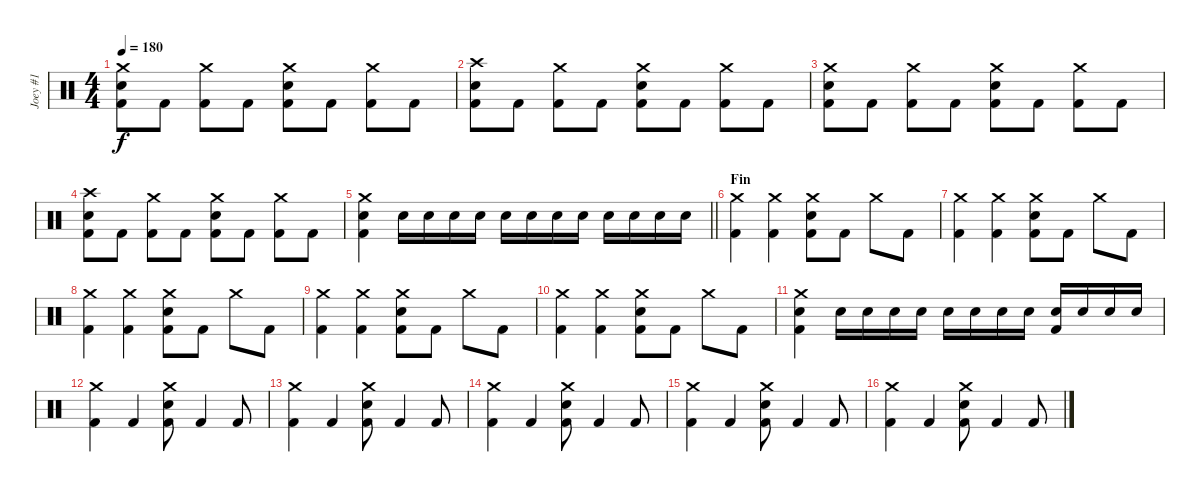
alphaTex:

\track ("Joey #1" "Joey #1") {instrument percussion}
\staff {score}
\articulation defaults
\ts (4 4)
\tempo 180
\clef neutral
\ks c
("Crash medium (hit)" "Electric Snare (hit)" "Kick (hit) 2").8{dy f} "Kick (hit) 2".8 ("Crash medium (hit)" "Kick (hit) 2").8 "Kick (hit) 2".8 ("Crash medium (hit)" "Electric Snare (hit)" "Kick (hit) 2").8 "Kick (hit) 2".8 ("Crash medium (hit)" "Kick (hit) 2").8 "Kick (hit) 2".8 |
("Crash high (hit)" "Electric Snare (hit)" "Kick (hit) 2").8 "Kick (hit) 2".8 ("Crash medium (hit)" "Kick (hit) 2").8 "Kick (hit) 2".8 ("Crash medium (hit)" "Electric Snare (hit)" "Kick (hit) 2").8 "Kick (hit) 2".8 ("Crash medium (hit)" "Kick (hit) 2").8 "Kick (hit) 2".8 |
("Crash medium (hit)" "Electric Snare (hit)" "Kick (hit) 2").8 "Kick (hit) 2".8 ("Crash medium (hit)" "Kick (hit) 2").8 "Kick (hit) 2".8 ("Crash medium (hit)" "Electric Snare (hit)" "Kick (hit) 2").8 "Kick (hit) 2".8 ("Crash medium (hit)" "Kick (hit) 2").8 "Kick (hit) 2".8 |
("Crash high (hit)" "Electric Snare (hit)" "Kick (hit) 2").8 "Kick (hit) 2".8 ("Crash medium (hit)" "Kick (hit) 2").8 "Kick (hit) 2".8 ("Crash medium (hit)" "Electric Snare (hit)" "Kick (hit) 2").8 "Kick (hit) 2".8 ("Crash medium (hit)" "Kick (hit) 2").8 "Kick (hit) 2".8 |
\barLineRight lightlight
("Crash medium (hit)" "Electric Snare (hit)" "Kick (hit) 2").4 "Electric Snare (hit)".16 "Electric Snare (hit)".16 "Electric Snare (hit)".16 "Electric Snare (hit)".16 "Electric Snare (hit)".16 "Electric Snare (hit)".16 "Electric Snare (hit)".16 "Electric Snare (hit)".16 "Electric Snare (hit)".16 "Electric Snare (hit)".16 "Electric Snare (hit)".16 "Electric Snare (hit)".16 |
\section ("" "Fin")
("Crash medium (hit)" "Kick (hit) 2").4 ("Crash medium (hit)" "Kick (hit) 2").4 ("Crash medium (hit)" "Electric Snare (hit)" "Kick (hit) 2").8 "Kick (hit) 2".8 "Crash medium (hit)".8 "Kick (hit) 2".8 |
("Crash medium (hit)" "Kick (hit) 2").4 ("Crash medium (hit)" "Kick (hit) 2").4 ("Crash medium (hit)" "Electric Snare (hit)" "Kick (hit) 2").8 "Kick (hit) 2".8 "Crash medium (hit)".8 "Kick (hit) 2".8 |
("Crash medium (hit)" "Kick (hit) 2").4 ("Crash medium (hit)" "Kick (hit) 2").4 ("Crash medium (hit)" "Electric Snare (hit)" "Kick (hit) 2").8 "Kick (hit) 2".8 "Crash medium (hit)".8 "Kick (hit) 2".8 |
("Crash medium (hit)" "Kick (hit) 2").4 ("Crash medium (hit)" "Kick (hit) 2").4 ("Crash medium (hit)" "Electric Snare (hit)" "Kick (hit) 2").8 "Kick (hit) 2".8 "Crash medium (hit)".8 "Kick (hit) 2".8 |
("Crash medium (hit)" "Kick (hit) 2").4 ("Crash medium (hit)" "Kick (hit) 2").4 ("Crash medium (hit)" "Electric Snare (hit)" "Kick (hit) 2").8 "Kick (hit) 2".8 "Crash medium (hit)".8 "Kick (hit) 2".8 |
("Crash medium (hit)" "Electric Snare (hit)" "Kick (hit) 2").4 "Electric Snare (hit)".16 "Electric Snare (hit)".16 "Electric Snare (hit)".16 "Electric Snare (hit)".16 "Electric Snare (hit)".16 "Electric Snare (hit)".16 "Electric Snare (hit)".16 "Electric Snare (hit)".16 ("Electric Snare (hit)" "Kick (hit) 2").16 "Electric Snare (hit)".16 "Electric Snare (hit)".16 "Electric Snare (hit)".16 |
("Crash medium (hit)" "Kick (hit) 2").4 "Kick (hit) 2".4 ("Crash medium (hit)" "Electric Snare (hit)" "Kick (hit) 2").8 "Kick (hit) 2".4 "Kick (hit) 2".8 |
("Crash medium (hit)" "Kick (hit) 2").4 "Kick (hit) 2".4 ("Crash medium (hit)" "Electric Snare (hit)" "Kick (hit) 2").8 "Kick (hit) 2".4 "Kick (hit) 2".8 |
("Crash medium (hit)" "Kick (hit) 2").4 "Kick (hit) 2".4 ("Crash medium (hit)" "Electric Snare (hit)" "Kick (hit) 2").8 "Kick (hit) 2".4 "Kick (hit) 2".8 |
("Crash medium (hit)" "Kick (hit) 2").4 "Kick (hit) 2".4 ("Crash medium (hit)" "Electric Snare (hit)" "Kick (hit) 2").8 "Kick (hit) 2".4 "Kick (hit) 2".8 |
("Crash medium (hit)" "Kick (hit) 2").4 "Kick (hit) 2".4 ("Crash medium (hit)" "Electric Snare (hit)" "Kick (hit) 2").8 "Kick (hit) 2".4 "Kick (hit) 2".8
